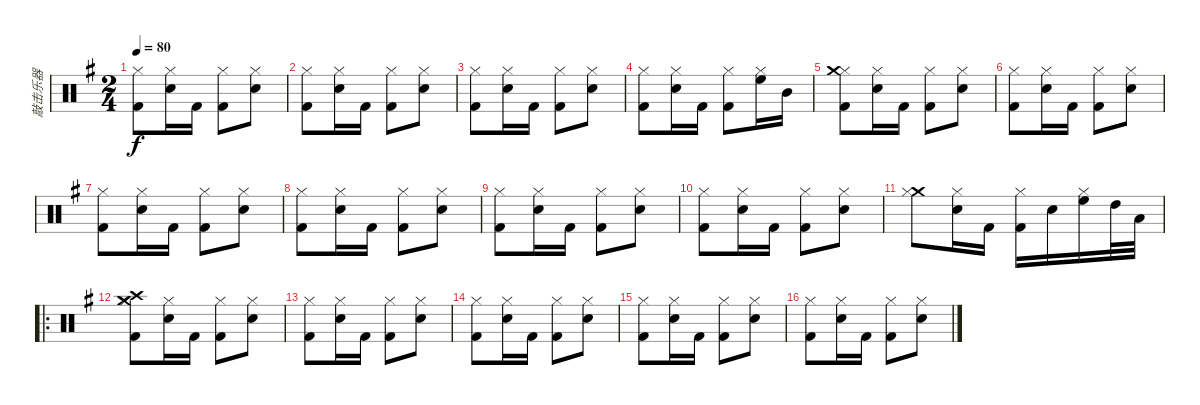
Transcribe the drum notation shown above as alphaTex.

\track ("敲击乐器" "敲击乐器") {instrument percussion}
\staff {score}
\articulation defaults
\ts (2 4)
\tempo 80
\clef neutral
\ks g
("Kick (hit) 2" "Hi-Hat (closed)").8{dy f} ("Electric Snare (hit)" "Hi-Hat (closed)").16 "Kick (hit) 2".16 ("Kick (hit) 2" "Hi-Hat (closed)").8 ("Electric Snare (hit)" "Hi-Hat (closed)").8 |
("Kick (hit) 2" "Hi-Hat (closed)").8 ("Electric Snare (hit)" "Hi-Hat (closed)").16 "Kick (hit) 2".16 ("Kick (hit) 2" "Hi-Hat (closed)").8 ("Electric Snare (hit)" "Hi-Hat (closed)").8 |
("Kick (hit) 2" "Hi-Hat (closed)").8 ("Electric Snare (hit)" "Hi-Hat (closed)").16 "Kick (hit) 2".16 ("Kick (hit) 2" "Hi-Hat (closed)").8 ("Electric Snare (hit)" "Hi-Hat (closed)").8 |
("Kick (hit) 2" "Hi-Hat (closed)").8 ("Electric Snare (hit)" "Hi-Hat (closed)").16 "Kick (hit) 2".16 ("Kick (hit) 2" "Hi-Hat (closed)").8 ("Hi-Hat (closed)" "High Floor Tom (hit)").16 "Mid Tom (hit)".16 |
("Kick (hit) 2" "Hi-Hat (closed)" "Crash medium (hit)").8 ("Electric Snare (hit)" "Hi-Hat (closed)").16 "Kick (hit) 2".16 ("Kick (hit) 2" "Hi-Hat (closed)").8 ("Electric Snare (hit)" "Hi-Hat (closed)").8 |
("Kick (hit) 2" "Hi-Hat (closed)").8 ("Electric Snare (hit)" "Hi-Hat (closed)").16 "Kick (hit) 2".16 ("Kick (hit) 2" "Hi-Hat (closed)").8 ("Electric Snare (hit)" "Hi-Hat (closed)").8 |
("Kick (hit) 2" "Hi-Hat (closed)").8 ("Electric Snare (hit)" "Hi-Hat (closed)").16 "Kick (hit) 2".16 ("Kick (hit) 2" "Hi-Hat (closed)").8 ("Electric Snare (hit)" "Hi-Hat (closed)").8 |
("Kick (hit) 2" "Hi-Hat (closed)").8 ("Electric Snare (hit)" "Hi-Hat (closed)").16 "Kick (hit) 2".16 ("Kick (hit) 2" "Hi-Hat (closed)").8 ("Electric Snare (hit)" "Hi-Hat (closed)").8 |
("Kick (hit) 2" "Hi-Hat (closed)").8 ("Electric Snare (hit)" "Hi-Hat (closed)").16 "Kick (hit) 2".16 ("Kick (hit) 2" "Hi-Hat (closed)").8 ("Electric Snare (hit)" "Hi-Hat (closed)").8 |
("Kick (hit) 2" "Hi-Hat (closed)").8 ("Electric Snare (hit)" "Hi-Hat (closed)").16 "Kick (hit) 2".16 ("Kick (hit) 2" "Hi-Hat (closed)").8 ("Electric Snare (hit)" "Hi-Hat (closed)").8 |
("Crash medium (hit)" "Hi-Hat (closed)").8 ("Electric Snare (hit)" "Hi-Hat (closed)").16 "Kick (hit) 2".16 ("Kick (hit) 2" "Hi-Hat (closed)").16 "Electric Snare (hit)".16 ("High Floor Tom (hit)" "Hi-Hat (closed)").16 "High Tom (hit)".32 "Low Tom (hit)".32 |
\ro
("Kick (hit) 2" "Hi-Hat (closed)" "Crash medium (hit)" "Crash high (hit)").8 ("Electric Snare (hit)" "Hi-Hat (closed)").16 "Kick (hit) 2".16 ("Kick (hit) 2" "Hi-Hat (closed)").8 ("Electric Snare (hit)" "Hi-Hat (closed)").8 |
("Kick (hit) 2" "Hi-Hat (closed)").8 ("Electric Snare (hit)" "Hi-Hat (closed)").16 "Kick (hit) 2".16 ("Kick (hit) 2" "Hi-Hat (closed)").8 ("Electric Snare (hit)" "Hi-Hat (closed)").8 |
("Kick (hit) 2" "Hi-Hat (closed)").8 ("Electric Snare (hit)" "Hi-Hat (closed)").16 "Kick (hit) 2".16 ("Kick (hit) 2" "Hi-Hat (closed)").8 ("Electric Snare (hit)" "Hi-Hat (closed)").8 |
("Kick (hit) 2" "Hi-Hat (closed)").8 ("Electric Snare (hit)" "Hi-Hat (closed)").16 "Kick (hit) 2".16 ("Kick (hit) 2" "Hi-Hat (closed)").8 ("Electric Snare (hit)" "Hi-Hat (closed)").8 |
("Kick (hit) 2" "Hi-Hat (closed)").8 ("Electric Snare (hit)" "Hi-Hat (closed)").16 "Kick (hit) 2".16 ("Kick (hit) 2" "Hi-Hat (closed)").8 ("Electric Snare (hit)" "Hi-Hat (closed)").8
